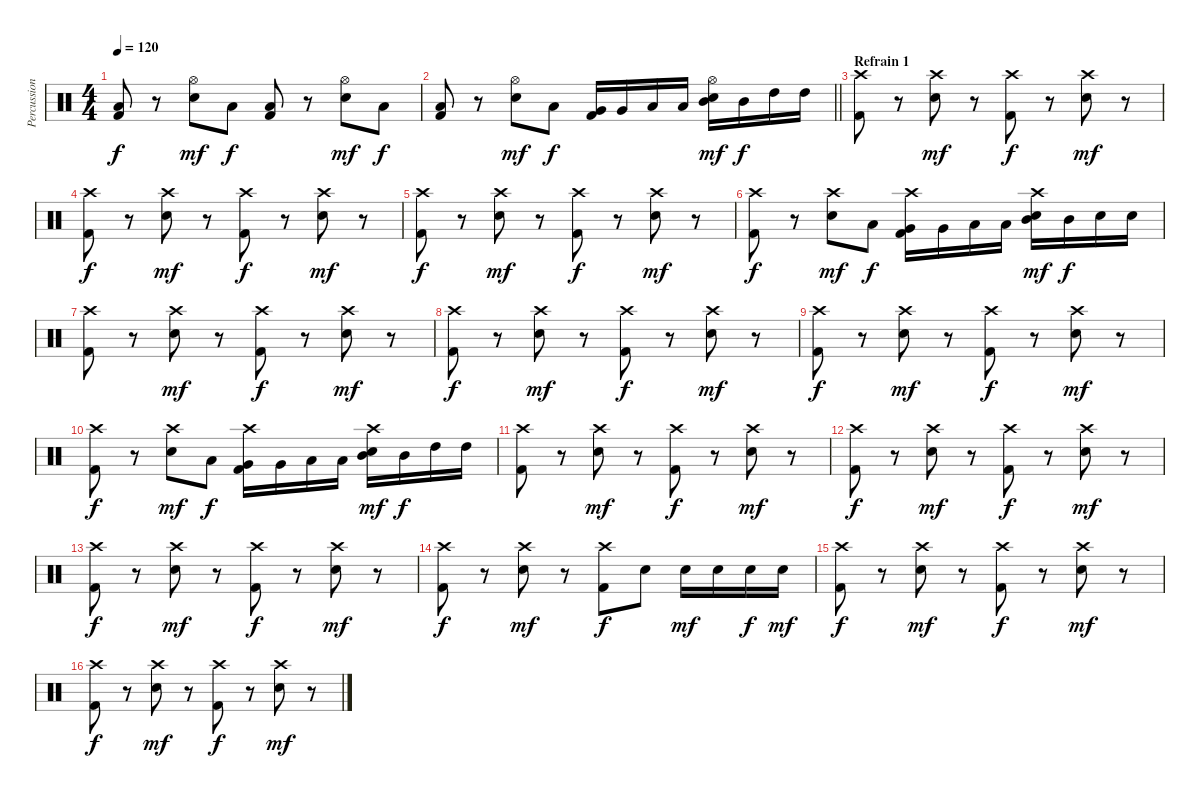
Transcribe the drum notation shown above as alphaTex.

\track ("Percussions" "Percussion") {instrument percussion}
\staff
\articulation defaults
\ts (4 4)
\tempo 120
\clef neutral
\ks c
("Kick (hit) 2" "Low Floor Tom (hit)").8{dy f} r.8 ("Hi-Hat (open)" "Electric Snare (hit)").8{dy mf} "Low Floor Tom (hit)".8{dy f} ("Kick (hit) 2" "Low Floor Tom (hit)").8 r.8 ("Hi-Hat (open)" "Electric Snare (hit)").8{dy mf} "Low Floor Tom (hit)".8{dy f} |
\barLineRight lightlight
("Kick (hit) 2" "Low Floor Tom (hit)").8 r.8 ("Hi-Hat (open)" "Electric Snare (hit)").8{dy mf} "Low Floor Tom (hit)".8{dy f} ("Kick (hit) 2" "Very Low Tom (hit)").16 "Very Low Tom (hit)".16 "Low Tom (hit)".16 "Low Tom (hit)".16 ("Hi-Hat (open)" "Electric Snare (hit)" "Mid Tom (hit)").16{dy mf} "Mid Tom (hit)".16{dy f} "High Tom (hit)".16 "High Tom (hit)".16 |
\section ("" "Refrain 1")
("Crash high (hit)" "Kick (hit) 2").8 r.8 ("Crash high (hit)" "Electric Snare (hit)").8{dy mf} r.8 ("Crash high (hit)" "Kick (hit) 2").8{dy f} r.8 ("Crash high (hit)" "Electric Snare (hit)").8{dy mf} r.8 |
("Crash high (hit)" "Kick (hit) 2").8{dy f} r.8 ("Crash high (hit)" "Electric Snare (hit)").8{dy mf} r.8 ("Crash high (hit)" "Kick (hit) 2").8{dy f} r.8 ("Crash high (hit)" "Electric Snare (hit)").8{dy mf} r.8 |
("Crash high (hit)" "Kick (hit) 2").8{dy f} r.8 ("Crash high (hit)" "Electric Snare (hit)").8{dy mf} r.8 ("Crash high (hit)" "Kick (hit) 2").8{dy f} r.8 ("Crash high (hit)" "Electric Snare (hit)").8{dy mf} r.8 |
("Crash high (hit)" "Kick (hit) 2").8{dy f} r.8 ("Crash high (hit)" "Electric Snare (hit)").8{dy mf} "Low Floor Tom (hit)".8{dy f} ("Crash high (hit)" "Kick (hit) 2" "Very Low Tom (hit)").16 "Very Low Tom (hit)".16 "Low Tom (hit)".16 "Low Tom (hit)".16 ("Crash high (hit)" "Electric Snare (hit)" "Mid Tom (hit)").16{dy mf} "Mid Tom (hit)".16{dy f} "Electric Snare (hit)".16 "Electric Snare (hit)".16 |
("Crash high (hit)" "Kick (hit) 2").8 r.8 ("Crash high (hit)" "Electric Snare (hit)").8{dy mf} r.8 ("Crash high (hit)" "Kick (hit) 2").8{dy f} r.8 ("Crash high (hit)" "Electric Snare (hit)").8{dy mf} r.8 |
("Crash high (hit)" "Kick (hit) 2").8{dy f} r.8 ("Crash high (hit)" "Electric Snare (hit)").8{dy mf} r.8 ("Crash high (hit)" "Kick (hit) 2").8{dy f} r.8 ("Crash high (hit)" "Electric Snare (hit)").8{dy mf} r.8 |
("Crash high (hit)" "Kick (hit) 2").8{dy f} r.8 ("Crash high (hit)" "Electric Snare (hit)").8{dy mf} r.8 ("Crash high (hit)" "Kick (hit) 2").8{dy f} r.8 ("Crash high (hit)" "Electric Snare (hit)").8{dy mf} r.8 |
("Crash high (hit)" "Kick (hit) 2").8{dy f} r.8 ("Crash high (hit)" "Electric Snare (hit)").8{dy mf} "Low Floor Tom (hit)".8{dy f} ("Crash high (hit)" "Kick (hit) 2" "Very Low Tom (hit)").16 "Very Low Tom (hit)".16 "Low Tom (hit)".16 "Low Tom (hit)".16 ("Crash high (hit)" "Electric Snare (hit)" "Mid Tom (hit)").16{dy mf} "Mid Tom (hit)".16{dy f} "High Tom (hit)".16 "High Tom (hit)".16 |
("Crash high (hit)" "Kick (hit) 2").8 r.8 ("Crash high (hit)" "Electric Snare (hit)").8{dy mf} r.8 ("Crash high (hit)" "Kick (hit) 2").8{dy f} r.8 ("Crash high (hit)" "Electric Snare (hit)").8{dy mf} r.8 |
("Crash high (hit)" "Kick (hit) 2").8{dy f} r.8 ("Crash high (hit)" "Electric Snare (hit)").8{dy mf} r.8 ("Crash high (hit)" "Kick (hit) 2").8{dy f} r.8 ("Crash high (hit)" "Electric Snare (hit)").8{dy mf} r.8 |
("Crash high (hit)" "Kick (hit) 2").8{dy f} r.8 ("Crash high (hit)" "Electric Snare (hit)").8{dy mf} r.8 ("Crash high (hit)" "Kick (hit) 2").8{dy f} r.8 ("Crash high (hit)" "Electric Snare (hit)").8{dy mf} r.8 |
("Crash high (hit)" "Kick (hit) 2").8{dy f} r.8 ("Crash high (hit)" "Electric Snare (hit)").8{dy mf} r.8 ("Crash high (hit)" "Kick (hit) 2").8{dy f} "Electric Snare (hit)".8 "Electric Snare (hit)".16{dy mf} "Electric Snare (hit)".16 "Electric Snare (hit)".16{dy f} "Electric Snare (hit)".16{dy mf} |
("Crash high (hit)" "Kick (hit) 2").8{dy f} r.8 ("Crash high (hit)" "Electric Snare (hit)").8{dy mf} r.8 ("Crash high (hit)" "Kick (hit) 2").8{dy f} r.8 ("Crash high (hit)" "Electric Snare (hit)").8{dy mf} r.8 |
("Crash high (hit)" "Kick (hit) 2").8{dy f} r.8 ("Crash high (hit)" "Electric Snare (hit)").8{dy mf} r.8 ("Crash high (hit)" "Kick (hit) 2").8{dy f} r.8 ("Crash high (hit)" "Electric Snare (hit)").8{dy mf} r.8
